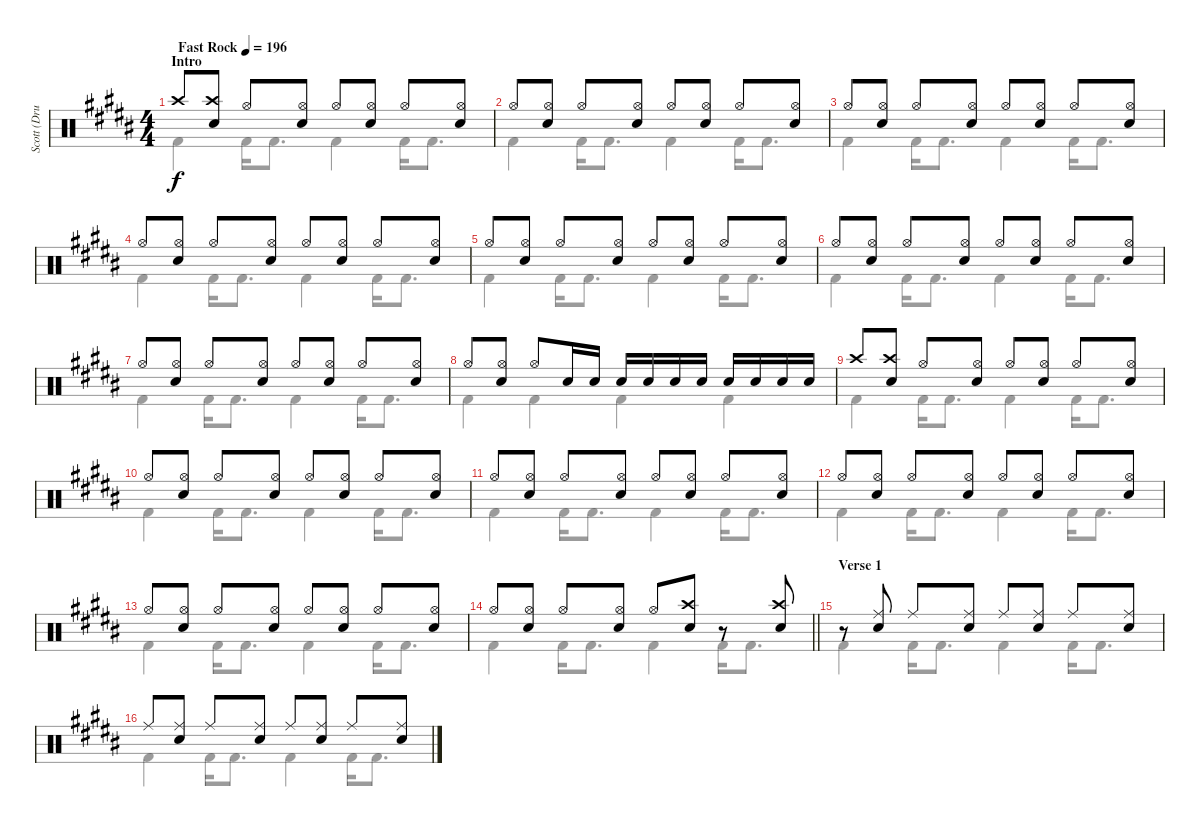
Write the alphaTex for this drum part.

\track ("Scott (Drums)" "Scott (Dru") {instrument percussion}
\staff {score}
\articulation defaults
\voice
\ts (4 4)
\section ("" "Intro")
\tempo (196 "Fast Rock")
\clef neutral
\ks b "Crash high (hit)".8{dy f}
("Crash high (hit)" "Electric Snare (hit)").8 "Hi-Hat (open)".8 ("Hi-Hat (open)" "Electric Snare (hit)").8 "Hi-Hat (open)".8 ("Hi-Hat (open)" "Electric Snare (hit)").8 "Hi-Hat (open)".8 ("Hi-Hat (open)" "Electric Snare (hit)").8 |
"Hi-Hat (open)".8 ("Hi-Hat (open)" "Electric Snare (hit)").8 "Hi-Hat (open)".8 ("Hi-Hat (open)" "Electric Snare (hit)").8 "Hi-Hat (open)".8 ("Hi-Hat (open)" "Electric Snare (hit)").8 "Hi-Hat (open)".8 ("Hi-Hat (open)" "Electric Snare (hit)").8 |
"Hi-Hat (open)".8 ("Hi-Hat (open)" "Electric Snare (hit)").8 "Hi-Hat (open)".8 ("Hi-Hat (open)" "Electric Snare (hit)").8 "Hi-Hat (open)".8 ("Hi-Hat (open)" "Electric Snare (hit)").8 "Hi-Hat (open)".8 ("Hi-Hat (open)" "Electric Snare (hit)").8 |
"Hi-Hat (open)".8 ("Hi-Hat (open)" "Electric Snare (hit)").8 "Hi-Hat (open)".8 ("Hi-Hat (open)" "Electric Snare (hit)").8 "Hi-Hat (open)".8 ("Hi-Hat (open)" "Electric Snare (hit)").8 "Hi-Hat (open)".8 ("Hi-Hat (open)" "Electric Snare (hit)").8 |
"Hi-Hat (open)".8 ("Hi-Hat (open)" "Electric Snare (hit)").8 "Hi-Hat (open)".8 ("Hi-Hat (open)" "Electric Snare (hit)").8 "Hi-Hat (open)".8 ("Hi-Hat (open)" "Electric Snare (hit)").8 "Hi-Hat (open)".8 ("Hi-Hat (open)" "Electric Snare (hit)").8 |
"Hi-Hat (open)".8 ("Hi-Hat (open)" "Electric Snare (hit)").8 "Hi-Hat (open)".8 ("Hi-Hat (open)" "Electric Snare (hit)").8 "Hi-Hat (open)".8 ("Hi-Hat (open)" "Electric Snare (hit)").8 "Hi-Hat (open)".8 ("Hi-Hat (open)" "Electric Snare (hit)").8 |
"Hi-Hat (open)".8 ("Hi-Hat (open)" "Electric Snare (hit)").8 "Hi-Hat (open)".8 ("Hi-Hat (open)" "Electric Snare (hit)").8 "Hi-Hat (open)".8 ("Hi-Hat (open)" "Electric Snare (hit)").8 "Hi-Hat (open)".8 ("Hi-Hat (open)" "Electric Snare (hit)").8 |
"Hi-Hat (open)".8 ("Hi-Hat (open)" "Electric Snare (hit)").8 "Hi-Hat (open)".8 "Electric Snare (hit)".16 "Electric Snare (hit)".16 "Electric Snare (hit)".16 "Electric Snare (hit)".16 "Electric Snare (hit)".16 "Electric Snare (hit)".16 "Electric Snare (hit)".16 "Electric Snare (hit)".16 "Electric Snare (hit)".16 "Electric Snare (hit)".16 |
"Crash high (hit)".8 ("Crash high (hit)" "Electric Snare (hit)").8 "Hi-Hat (open)".8 ("Hi-Hat (open)" "Electric Snare (hit)").8 "Hi-Hat (open)".8 ("Hi-Hat (open)" "Electric Snare (hit)").8 "Hi-Hat (open)".8 ("Hi-Hat (open)" "Electric Snare (hit)").8 |
"Hi-Hat (open)".8 ("Hi-Hat (open)" "Electric Snare (hit)").8 "Hi-Hat (open)".8 ("Hi-Hat (open)" "Electric Snare (hit)").8 "Hi-Hat (open)".8 ("Hi-Hat (open)" "Electric Snare (hit)").8 "Hi-Hat (open)".8 ("Hi-Hat (open)" "Electric Snare (hit)").8 |
"Hi-Hat (open)".8 ("Hi-Hat (open)" "Electric Snare (hit)").8 "Hi-Hat (open)".8 ("Hi-Hat (open)" "Electric Snare (hit)").8 "Hi-Hat (open)".8 ("Hi-Hat (open)" "Electric Snare (hit)").8 "Hi-Hat (open)".8 ("Hi-Hat (open)" "Electric Snare (hit)").8 |
"Hi-Hat (open)".8 ("Hi-Hat (open)" "Electric Snare (hit)").8 "Hi-Hat (open)".8 ("Hi-Hat (open)" "Electric Snare (hit)").8 "Hi-Hat (open)".8 ("Hi-Hat (open)" "Electric Snare (hit)").8 "Hi-Hat (open)".8 ("Hi-Hat (open)" "Electric Snare (hit)").8 |
"Hi-Hat (open)".8 ("Hi-Hat (open)" "Electric Snare (hit)").8 "Hi-Hat (open)".8 ("Hi-Hat (open)" "Electric Snare (hit)").8 "Hi-Hat (open)".8 ("Hi-Hat (open)" "Electric Snare (hit)").8 "Hi-Hat (open)".8 ("Hi-Hat (open)" "Electric Snare (hit)").8 |
\barLineRight lightlight "Hi-Hat (open)".8
("Hi-Hat (open)" "Electric Snare (hit)").8 "Hi-Hat (open)".8 ("Hi-Hat (open)" "Electric Snare (hit)").8 "Hi-Hat (open)".8 ("Crash high (hit)" "Electric Snare (hit)").8 r.8 ("Crash high (hit)" "Electric Snare (hit)").8 |
\section ("" "Verse 1")
r.8 ("Ride (middle)" "Electric Snare (hit)").8 "Ride (middle)".8 ("Ride (middle)" "Electric Snare (hit)").8 "Ride (middle)".8 ("Ride (middle)" "Electric Snare (hit)").8 "Ride (middle)".8 ("Ride (middle)" "Electric Snare (hit)").8 |
"Ride (middle)".8 ("Ride (middle)" "Electric Snare (hit)").8 "Ride (middle)".8 ("Ride (middle)" "Electric Snare (hit)").8 "Ride (middle)".8 ("Ride (middle)" "Electric Snare (hit)").8 "Ride (middle)".8 ("Ride (middle)" "Electric Snare (hit)").8
\voice
\clef neutral
\ottava regular
\simile none
\ks b "Kick (hit) 2".4{dy f} "Kick (hit) 2".16 "Kick (hit) 2".8{d} "Kick (hit) 2".4 "Kick (hit) 2".16 "Kick (hit) 2".8{d}
|
"Kick (hit) 2".4 "Kick (hit) 2".16 "Kick (hit) 2".8{d} "Kick (hit) 2".4 "Kick (hit) 2".16 "Kick (hit) 2".8{d} |
"Kick (hit) 2".4 "Kick (hit) 2".16 "Kick (hit) 2".8{d} "Kick (hit) 2".4 "Kick (hit) 2".16 "Kick (hit) 2".8{d} |
"Kick (hit) 2".4 "Kick (hit) 2".16 "Kick (hit) 2".8{d} "Kick (hit) 2".4 "Kick (hit) 2".16 "Kick (hit) 2".8{d} |
"Kick (hit) 2".4 "Kick (hit) 2".16 "Kick (hit) 2".8{d} "Kick (hit) 2".4 "Kick (hit) 2".16 "Kick (hit) 2".8{d} |
"Kick (hit) 2".4 "Kick (hit) 2".16 "Kick (hit) 2".8{d} "Kick (hit) 2".4 "Kick (hit) 2".16 "Kick (hit) 2".8{d} |
"Kick (hit) 2".4 "Kick (hit) 2".16 "Kick (hit) 2".8{d} "Kick (hit) 2".4 "Kick (hit) 2".16 "Kick (hit) 2".8{d} |
"Kick (hit) 2".4 "Kick (hit) 2".4 "Kick (hit) 2".4 "Kick (hit) 2".4 |
"Kick (hit) 2".4 "Kick (hit) 2".16 "Kick (hit) 2".8{d} "Kick (hit) 2".4 "Kick (hit) 2".16 "Kick (hit) 2".8{d} |
"Kick (hit) 2".4 "Kick (hit) 2".16 "Kick (hit) 2".8{d} "Kick (hit) 2".4 "Kick (hit) 2".16 "Kick (hit) 2".8{d} |
"Kick (hit) 2".4 "Kick (hit) 2".16 "Kick (hit) 2".8{d} "Kick (hit) 2".4 "Kick (hit) 2".16 "Kick (hit) 2".8{d} |
"Kick (hit) 2".4 "Kick (hit) 2".16 "Kick (hit) 2".8{d} "Kick (hit) 2".4 "Kick (hit) 2".16 "Kick (hit) 2".8{d} |
"Kick (hit) 2".4 "Kick (hit) 2".16 "Kick (hit) 2".8{d} "Kick (hit) 2".4 "Kick (hit) 2".16 "Kick (hit) 2".8{d} |
\barLineRight lightlight "Kick (hit) 2".4 "Kick (hit) 2".16 "Kick (hit) 2".8{d} "Kick (hit) 2".4 "Kick (hit) 2".16 "Kick (hit) 2".8{d}
|
"Kick (hit) 2".4 "Kick (hit) 2".16 "Kick (hit) 2".8{d} "Kick (hit) 2".4 "Kick (hit) 2".16 "Kick (hit) 2".8{d} |
"Kick (hit) 2".4 "Kick (hit) 2".16 "Kick (hit) 2".8{d} "Kick (hit) 2".4 "Kick (hit) 2".16 "Kick (hit) 2".8{d}
